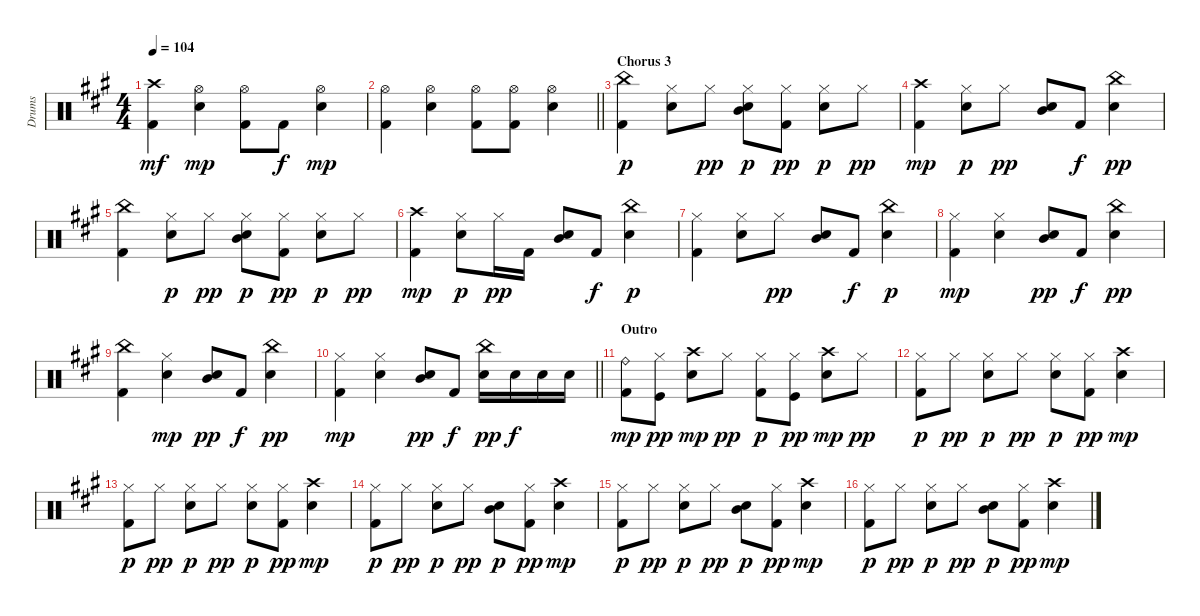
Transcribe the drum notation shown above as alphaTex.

\track ("Drums" "Drums") {instrument percussion}
\staff {score}
\articulation defaults
\ts (4 4)
\tempo 104
\clef neutral
\ks a
("Kick (hit) 2" "Crash high (hit)").4{dy mf} ("Hi-Hat (open)" "Electric Snare (hit)").4{dy mp} ("Hi-Hat (open)" "Kick (hit) 2").8 "Kick (hit) 2".8{dy f} ("Hi-Hat (open)" "Electric Snare (hit)").4{dy mp} |
\barLineRight lightlight
("Hi-Hat (open)" "Kick (hit) 2").4 ("Hi-Hat (open)" "Electric Snare (hit)").4 ("Hi-Hat (open)" "Kick (hit) 2").8 ("Hi-Hat (open)" "Kick (hit) 2").8 ("Electric Snare (hit)" "Hi-Hat (open)").4 |
\section ("" "Chorus 3")
("China (hit)" "Kick (hit) 2").4{dy p} ("Electric Snare (hit)" "Hi-Hat (closed)").8 "Hi-Hat (closed)".8{dy pp} ("Electric Snare (hit)" "Mid Tom (hit)" "Hi-Hat (closed)").8{dy p} ("Kick (hit) 2" "Hi-Hat (closed)").8{dy pp} ("Electric Snare (hit)" "Hi-Hat (closed)").8{dy p} "Hi-Hat (closed)".8{dy pp} |
("Crash high (hit)" "Kick (hit) 2").4{dy mp} ("Electric Snare (hit)" "Hi-Hat (closed)").8{dy p} "Hi-Hat (closed)".8{dy pp} ("Electric Snare (hit)" "Mid Tom (hit)").8 "Kick (hit) 2".8{dy f} ("Electric Snare (hit)" "China (hit)").4{dy pp} |
("China (hit)" "Kick (hit) 2").4 ("Electric Snare (hit)" "Hi-Hat (closed)").8{dy p} "Hi-Hat (closed)".8{dy pp} ("Electric Snare (hit)" "Mid Tom (hit)" "Hi-Hat (closed)").8{dy p} ("Kick (hit) 2" "Hi-Hat (closed)").8{dy pp} ("Electric Snare (hit)" "Hi-Hat (closed)").8{dy p} "Hi-Hat (closed)".8{dy pp} |
("Crash high (hit)" "Kick (hit) 2").4{dy mp} ("Electric Snare (hit)" "Hi-Hat (closed)").8{dy p} "Hi-Hat (closed)".16{dy pp} "Kick (hit) 2".16 ("Electric Snare (hit)" "Mid Tom (hit)").8 "Kick (hit) 2".8{dy f} ("Electric Snare (hit)" "China (hit)").4{dy p} |
("Hi-Hat (closed)" "Kick (hit) 2").4 ("Electric Snare (hit)" "Hi-Hat (closed)").8 "Hi-Hat (closed)".8{dy pp} ("Electric Snare (hit)" "Mid Tom (hit)").8 "Kick (hit) 2".8{dy f} ("Electric Snare (hit)" "China (hit)").4{dy p} |
("Hi-Hat (closed)" "Kick (hit) 2").4{dy mp} ("Electric Snare (hit)" "Hi-Hat (closed)").4 ("Electric Snare (hit)" "Mid Tom (hit)").8{dy pp} "Kick (hit) 2".8{dy f} ("Electric Snare (hit)" "China (hit)").4{dy pp} |
("China (hit)" "Kick (hit) 2").4 ("Electric Snare (hit)" "Hi-Hat (closed)").4{dy mp} ("Electric Snare (hit)" "Mid Tom (hit)").8{dy pp} "Kick (hit) 2".8{dy f} ("Electric Snare (hit)" "China (hit)").4{dy pp} |
\barLineRight lightlight
("Hi-Hat (closed)" "Kick (hit) 2").4{dy mp} ("Electric Snare (hit)" "Hi-Hat (closed)").4 ("Electric Snare (hit)" "Mid Tom (hit)").8{dy pp} "Kick (hit) 2".8{dy f} ("Electric Snare (hit)" "China (hit)").16{dy pp} "Electric Snare (hit)".16{dy f} "Electric Snare (hit)".16 "Electric Snare (hit)".16 |
\section ("" "Outro")
("Kick (hit) 2" "Ride (bell)").8{dy mp} ("Kick (hit)" "Hi-Hat (closed)").8{dy pp} ("Electric Snare (hit)" "Crash high (hit)").8{dy mp} "Hi-Hat (closed)".8{dy pp} ("Kick (hit) 2" "Hi-Hat (closed)").8{dy p} ("Kick (hit)" "Hi-Hat (closed)").8{dy pp} ("Electric Snare (hit)" "Crash high (hit)").8{dy mp} "Hi-Hat (closed)".8{dy pp} |
("Kick (hit) 2" "Hi-Hat (closed)").8{dy p} "Hi-Hat (closed)".8{dy pp} ("Electric Snare (hit)" "Hi-Hat (closed)").8{dy p} "Hi-Hat (closed)".8{dy pp} ("Electric Snare (hit)" "Hi-Hat (closed)").8{dy p} ("Kick (hit) 2" "Hi-Hat (closed)").8{dy pp} ("Electric Snare (hit)" "Crash high (hit)").4{dy mp} |
("Kick (hit) 2" "Hi-Hat (closed)").8{dy p} "Hi-Hat (closed)".8{dy pp} ("Electric Snare (hit)" "Hi-Hat (closed)").8{dy p} "Hi-Hat (closed)".8{dy pp} ("Electric Snare (hit)" "Hi-Hat (closed)").8{dy p} ("Kick (hit) 2" "Hi-Hat (closed)").8{dy pp} ("Electric Snare (hit)" "Crash high (hit)").4{dy mp} |
("Kick (hit) 2" "Hi-Hat (closed)").8{dy p} "Hi-Hat (closed)".8{dy pp} ("Electric Snare (hit)" "Hi-Hat (closed)").8{dy p} "Hi-Hat (closed)".8{dy pp} ("Electric Snare (hit)" "Mid Tom (hit)").8{dy p} ("Kick (hit) 2" "Hi-Hat (closed)").8{dy pp} ("Electric Snare (hit)" "Crash high (hit)").4{dy mp} |
("Kick (hit) 2" "Hi-Hat (closed)").8{dy p} "Hi-Hat (closed)".8{dy pp} ("Electric Snare (hit)" "Hi-Hat (closed)").8{dy p} "Hi-Hat (closed)".8{dy pp} ("Electric Snare (hit)" "Mid Tom (hit)").8{dy p} ("Kick (hit) 2" "Hi-Hat (closed)").8{dy pp} ("Electric Snare (hit)" "Crash high (hit)").4{dy mp} |
("Kick (hit) 2" "Hi-Hat (closed)").8{dy p} "Hi-Hat (closed)".8{dy pp} ("Electric Snare (hit)" "Hi-Hat (closed)").8{dy p} "Hi-Hat (closed)".8{dy pp} ("Electric Snare (hit)" "Mid Tom (hit)").8{dy p} ("Kick (hit) 2" "Hi-Hat (closed)").8{dy pp} ("Electric Snare (hit)" "Crash high (hit)").4{dy mp}
